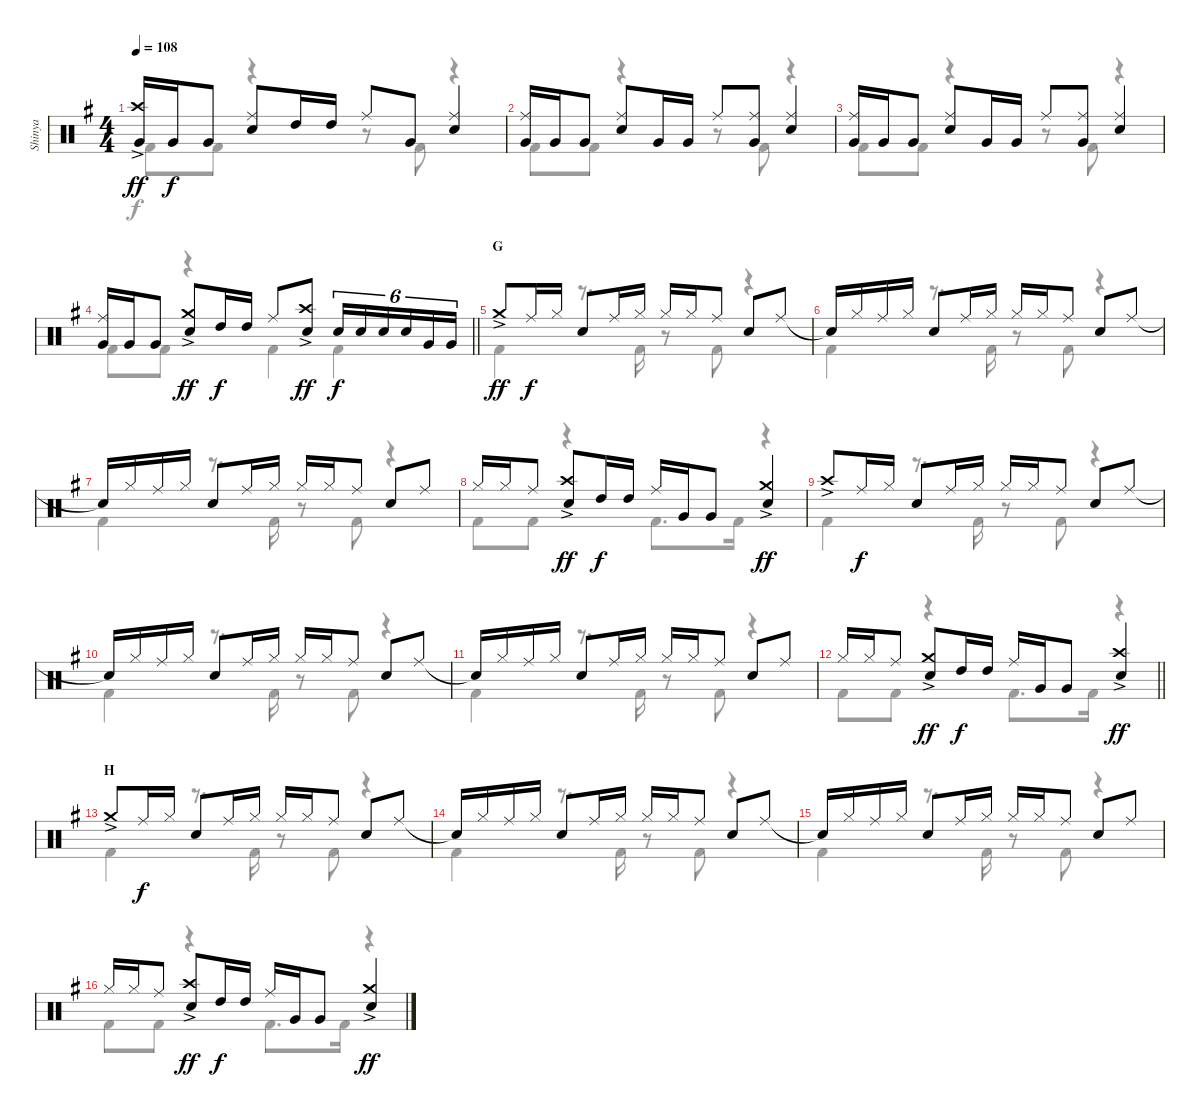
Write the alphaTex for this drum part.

\track ("Shinya" "Shinya") {instrument percussion}
\staff {score}
\articulation defaults
\voice
\ts (4 4)
\tempo 108
\clef neutral
\ks eminor
("Crash high (hit)"{ac} "Very Low Tom (hit)").16{dy ff} "Very Low Tom (hit)".16{dy f} "Very Low Tom (hit)".8 ("Ride (middle)" "Snare (hit) 2").8 "High Tom (hit)".16 "High Tom (hit)".16 "Ride (middle)".8 "Very Low Tom (hit)".8 ("Ride (middle)" "Snare (hit) 2").4 |
("Ride (middle)" "Very Low Tom (hit)").16 "Very Low Tom (hit)".16 "Very Low Tom (hit)".8 ("Ride (middle)" "Snare (hit) 2").8 "Very Low Tom (hit)".16 "Very Low Tom (hit)".16 "Ride (middle)".8 ("Ride (middle)" "Very Low Tom (hit)").8 ("Ride (middle)" "Snare (hit) 2").4 |
("Ride (middle)" "Very Low Tom (hit)").16 "Very Low Tom (hit)".16 "Very Low Tom (hit)".8 ("Ride (middle)" "Snare (hit) 2").8 "Very Low Tom (hit)".16 "Very Low Tom (hit)".16 "Ride (middle)".8 ("Ride (middle)" "Very Low Tom (hit)").8 ("Ride (middle)" "Snare (hit) 2").4 |
\barLineRight lightlight
("Ride (middle)" "Very Low Tom (hit)").16 "Very Low Tom (hit)".16 "Very Low Tom (hit)".8 ("Crash medium (hit)"{ac} "Snare (hit) 2").8{dy ff} "High Tom (hit)".16{dy f} "High Tom (hit)".16 "Ride (middle)".8 ("Crash high (hit)"{ac} "Snare (hit) 2").8{dy ff} "Snare (hit) 2".16{tu (6 4) dy f} "Snare (hit) 2".16{tu (6 4)} "Snare (hit) 2".16{tu (6 4)} "Snare (hit) 2".16{tu (6 4)} "Very Low Tom (hit)".16{tu (6 4)} "Very Low Tom (hit)".16{tu (6 4)} |
\section ("" "G")
"Crash medium (hit)"{ac}.8{dy ff} "Ride (middle)".16{dy f} "Hi-Hat (closed)".16 "Snare (hit) 2".8 "Ride (middle)".16 "Hi-Hat (closed)".16 "Hi-Hat (closed)".16 "Hi-Hat (closed)".16 "Ride (middle)".8 "Snare (hit) 2".8 "Ride (middle)".8 |
"Snare (hit)"{t}.16 "Hi-Hat (closed)".16 "Ride (middle)".16 "Hi-Hat (closed)".16 "Snare (hit) 2".8 "Ride (middle)".16 "Hi-Hat (closed)".16 "Hi-Hat (closed)".16 "Hi-Hat (closed)".16 "Ride (middle)".8 "Snare (hit) 2".8 "Ride (middle)".8 |
"Snare (hit)"{t}.16 "Hi-Hat (closed)".16 "Ride (middle)".16 "Hi-Hat (closed)".16 "Snare (hit) 2".8 "Ride (middle)".16 "Hi-Hat (closed)".16 "Hi-Hat (closed)".16 "Hi-Hat (closed)".16 "Ride (middle)".8 "Snare (hit) 2".8 "Ride (middle)".8 |
"Hi-Hat (closed)".16 "Hi-Hat (closed)".16 "Ride (middle)".8 ("Crash high (hit)"{ac} "Snare (hit) 2").8{dy ff} "High Tom (hit)".16{dy f} "High Tom (hit)".16 "Ride (middle)".16 "Very Low Tom (hit)".16 "Very Low Tom (hit)".8 ("Crash medium (hit)"{ac} "Snare (hit) 2").4{dy ff} |
"Crash high (hit)"{ac}.8 "Ride (middle)".16{dy f} "Hi-Hat (closed)".16 "Snare (hit) 2".8 "Ride (middle)".16 "Hi-Hat (closed)".16 "Hi-Hat (closed)".16 "Hi-Hat (closed)".16 "Ride (middle)".8 "Snare (hit) 2".8 "Ride (middle)".8 |
"Snare (hit)"{t}.16 "Hi-Hat (closed)".16 "Ride (middle)".16 "Hi-Hat (closed)".16 "Snare (hit) 2".8 "Ride (middle)".16 "Hi-Hat (closed)".16 "Hi-Hat (closed)".16 "Hi-Hat (closed)".16 "Ride (middle)".8 "Snare (hit) 2".8 "Ride (middle)".8 |
"Snare (hit)"{t}.16 "Hi-Hat (closed)".16 "Ride (middle)".16 "Hi-Hat (closed)".16 "Snare (hit) 2".8 "Ride (middle)".16 "Hi-Hat (closed)".16 "Hi-Hat (closed)".16 "Hi-Hat (closed)".16 "Ride (middle)".8 "Snare (hit) 2".8 "Ride (middle)".8 |
\barLineRight lightlight "Hi-Hat (closed)".16 "Hi-Hat (closed)".16 "Ride (middle)".8
("Crash medium (hit)"{ac} "Snare (hit) 2").8{dy ff} "High Tom (hit)".16{dy f} "High Tom (hit)".16 "Ride (middle)".16 "Very Low Tom (hit)".16 "Very Low Tom (hit)".8 ("Crash high (hit)"{ac} "Snare (hit) 2").4{dy ff} |
\section ("" "H")
"Crash medium (hit)"{ac}.8 "Ride (middle)".16{dy f} "Hi-Hat (closed)".16 "Snare (hit) 2".8 "Ride (middle)".16 "Hi-Hat (closed)".16 "Hi-Hat (closed)".16 "Hi-Hat (closed)".16 "Ride (middle)".8 "Snare (hit) 2".8 "Ride (middle)".8 |
"Snare (hit)"{t}.16 "Hi-Hat (closed)".16 "Ride (middle)".16 "Hi-Hat (closed)".16 "Snare (hit) 2".8 "Ride (middle)".16 "Hi-Hat (closed)".16 "Hi-Hat (closed)".16 "Hi-Hat (closed)".16 "Ride (middle)".8 "Snare (hit) 2".8 "Ride (middle)".8 |
"Snare (hit)"{t}.16 "Hi-Hat (closed)".16 "Ride (middle)".16 "Hi-Hat (closed)".16 "Snare (hit) 2".8 "Ride (middle)".16 "Hi-Hat (closed)".16 "Hi-Hat (closed)".16 "Hi-Hat (closed)".16 "Ride (middle)".8 "Snare (hit) 2".8 "Ride (middle)".8 |
"Hi-Hat (closed)".16 "Hi-Hat (closed)".16 "Ride (middle)".8 ("Crash high (hit)"{ac} "Snare (hit) 2").8{dy ff} "High Tom (hit)".16{dy f} "High Tom (hit)".16 "Ride (middle)".16 "Very Low Tom (hit)".16 "Very Low Tom (hit)".8 ("Crash medium (hit)"{ac} "Snare (hit) 2").4{dy ff}
\voice
\clef neutral
\ottava regular
\simile none
\ks eminor "Kick (hit) 2".8{dy f} "Kick (hit) 2".8
r.4 r.8 "Kick (hit) 2".8 r.4 |
"Kick (hit) 2".8 "Kick (hit) 2".8 r.4 r.8 "Kick (hit) 2".8 r.4 |
"Kick (hit) 2".8 "Kick (hit) 2".8 r.4 r.8 "Kick (hit) 2".8 r.4 |
\barLineRight lightlight "Kick (hit) 2".8 "Kick (hit) 2".8
r.4 "Kick (hit) 2".4 "Kick (hit) 2".4 |
"Kick (hit) 2".4 r.8{d} "Kick (hit) 2".16 r.8 "Kick (hit) 2".8 r.4 |
"Kick (hit) 2".4 r.8{d} "Kick (hit) 2".16 r.8 "Kick (hit) 2".8 r.4 |
"Kick (hit) 2".4 r.8{d} "Kick (hit) 2".16 r.8 "Kick (hit) 2".8 r.4 |
"Kick (hit) 2".8 "Kick (hit) 2".8 r.4 "Kick (hit) 2".8{d} "Kick (hit) 2".16 r.4 |
"Kick (hit) 2".4 r.8{d} "Kick (hit) 2".16 r.8 "Kick (hit) 2".8 r.4 |
"Kick (hit) 2".4 r.8{d} "Kick (hit) 2".16 r.8 "Kick (hit) 2".8 r.4 |
"Kick (hit) 2".4 r.8{d} "Kick (hit) 2".16 r.8 "Kick (hit) 2".8 r.4 |
\barLineRight lightlight "Kick (hit) 2".8 "Kick (hit) 2".8
r.4 "Kick (hit) 2".8{d} "Kick (hit) 2".16 r.4 |
"Kick (hit) 2".4 r.8{d} "Kick (hit) 2".16 r.8 "Kick (hit) 2".8 r.4 |
"Kick (hit) 2".4 r.8{d} "Kick (hit) 2".16 r.8 "Kick (hit) 2".8 r.4 |
"Kick (hit) 2".4 r.8{d} "Kick (hit) 2".16 r.8 "Kick (hit) 2".8 r.4 |
"Kick (hit) 2".8 "Kick (hit) 2".8 r.4 "Kick (hit) 2".8{d} "Kick (hit) 2".16 r.4
